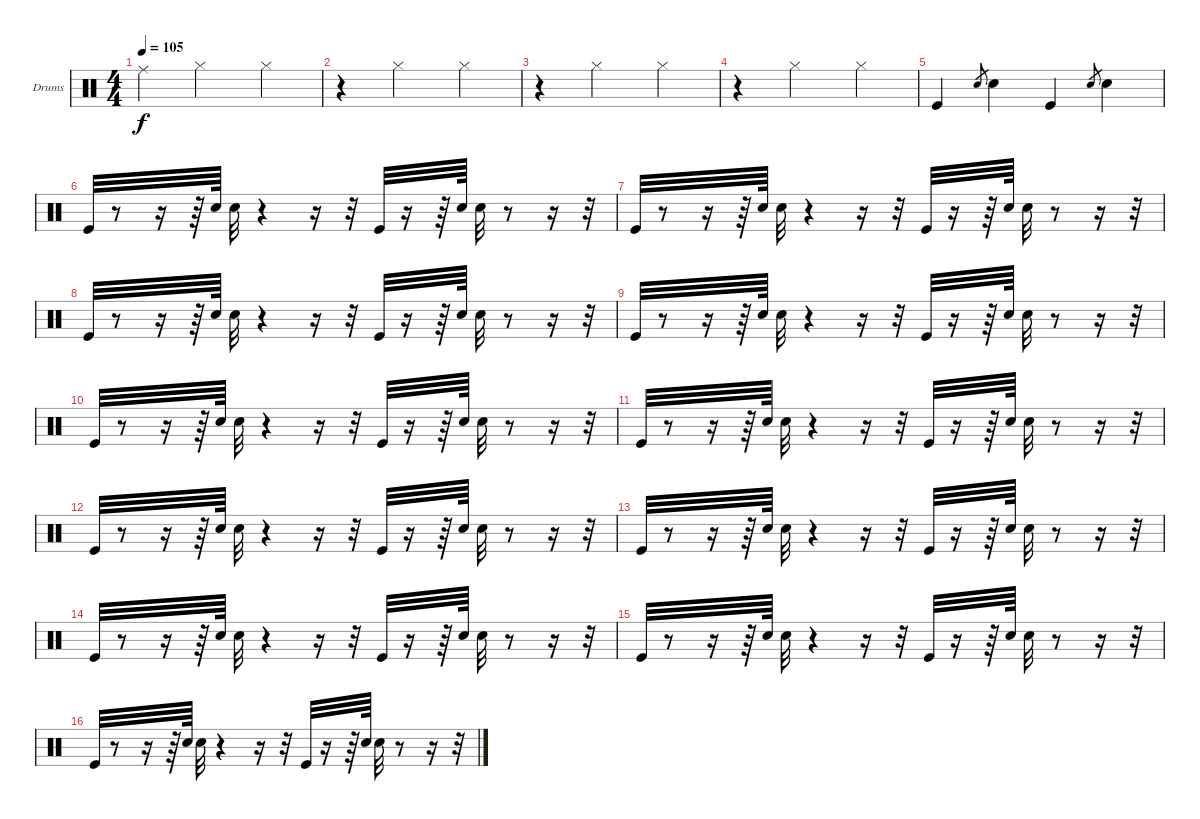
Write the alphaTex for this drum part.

\defaultSystemsLayout 4
\bracketExtendMode groupsimilarinstruments
\firstSystemTrackNameOrientation horizontal
\otherSystemsTrackNameOrientation horizontal
\track ("Drumkit" "Drums") {instrument percussion}
\staff {score}
\articulation defaults
\ts (4 4)
\tempo 105
\clef neutral
\ks c "Ride (middle)".4{dy f} "Hi-Hat (closed)".2 "Hi-Hat (closed)".4
|
r.4 "Hi-Hat (closed)".2 "Hi-Hat (closed)".4 |
r.4 "Hi-Hat (closed)".2 "Hi-Hat (closed)".4 |
r.4 "Hi-Hat (closed)".2 "Hi-Hat (closed)".4 |
"Kick (hit)".4 "Snare (hit) 2".8{gr} "Snare (hit) 2".4 "Kick (hit)".4 "Snare (hit) 2".8{gr} "Snare (hit) 2".4 |
"Kick (hit)".32 r.8 r.16 r.64 "Snare (hit) 2".64 "Snare (hit) 2".32 r.4 r.16 r.32 "Kick (hit)".32 r.16 r.64 "Snare (hit) 2".64 "Snare (hit) 2".32 r.8 r.16 r.32 |
"Kick (hit)".32 r.8 r.16 r.64 "Snare (hit) 2".64 "Snare (hit) 2".32 r.4 r.16 r.32 "Kick (hit)".32 r.16 r.64 "Snare (hit) 2".64 "Snare (hit) 2".32 r.8 r.16 r.32 |
"Kick (hit)".32 r.8 r.16 r.64 "Snare (hit) 2".64 "Snare (hit) 2".32 r.4 r.16 r.32 "Kick (hit)".32 r.16 r.64 "Snare (hit) 2".64 "Snare (hit) 2".32 r.8 r.16 r.32 |
"Kick (hit)".32 r.8 r.16 r.64 "Snare (hit) 2".64 "Snare (hit) 2".32 r.4 r.16 r.32 "Kick (hit)".32 r.16 r.64 "Snare (hit) 2".64 "Snare (hit) 2".32 r.8 r.16 r.32 |
"Kick (hit)".32 r.8 r.16 r.64 "Snare (hit) 2".64 "Snare (hit) 2".32 r.4 r.16 r.32 "Kick (hit)".32 r.16 r.64 "Snare (hit) 2".64 "Snare (hit) 2".32 r.8 r.16 r.32 |
"Kick (hit)".32 r.8 r.16 r.64 "Snare (hit) 2".64 "Snare (hit) 2".32 r.4 r.16 r.32 "Kick (hit)".32 r.16 r.64 "Snare (hit) 2".64 "Snare (hit) 2".32 r.8 r.16 r.32 |
"Kick (hit)".32 r.8 r.16 r.64 "Snare (hit) 2".64 "Snare (hit) 2".32 r.4 r.16 r.32 "Kick (hit)".32 r.16 r.64 "Snare (hit) 2".64 "Snare (hit) 2".32 r.8 r.16 r.32 |
"Kick (hit)".32 r.8 r.16 r.64 "Snare (hit) 2".64 "Snare (hit) 2".32 r.4 r.16 r.32 "Kick (hit)".32 r.16 r.64 "Snare (hit) 2".64 "Snare (hit) 2".32 r.8 r.16 r.32 |
"Kick (hit)".32 r.8 r.16 r.64 "Snare (hit) 2".64 "Snare (hit) 2".32 r.4 r.16 r.32 "Kick (hit)".32 r.16 r.64 "Snare (hit) 2".64 "Snare (hit) 2".32 r.8 r.16 r.32 |
"Kick (hit)".32 r.8 r.16 r.64 "Snare (hit) 2".64 "Snare (hit) 2".32 r.4 r.16 r.32 "Kick (hit)".32 r.16 r.64 "Snare (hit) 2".64 "Snare (hit) 2".32 r.8 r.16 r.32 |
"Kick (hit)".32 r.8 r.16 r.64 "Snare (hit) 2".64 "Snare (hit) 2".32 r.4 r.16 r.32 "Kick (hit)".32 r.16 r.64 "Snare (hit) 2".64 "Snare (hit) 2".32 r.8 r.16 r.32
